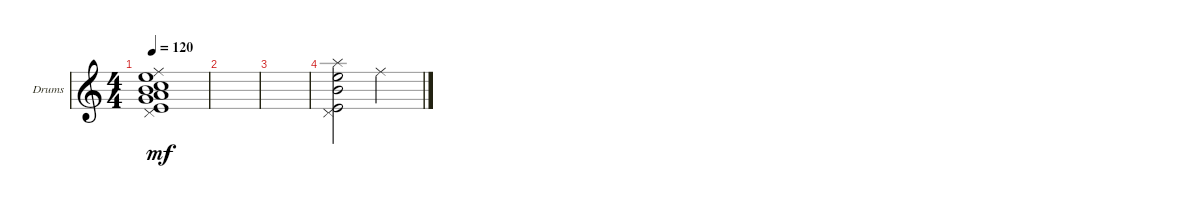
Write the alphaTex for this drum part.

\defaultSystemsLayout 4
\bracketExtendMode groupsimilarinstruments
\firstSystemTrackNameOrientation horizontal
\otherSystemsTrackNameOrientation horizontal
\track ("Drumkit" "Drums") {instrument percussion}
\staff {score}
\articulation defaults
\ts (4 4)
\tempo 120
\clef g2
\ks c
("Snare (hit) 2" "Mid Tom (hit)" "Low Tom (hit)" "Very Low Tom (hit)" "Kick (hit)" "Pedal Hi-Hat (hit)" "High Floor Tom (hit)" "Ride (middle)").1{dy mf} |
|
|
("Splash (hit)" "Pedal Hi-Hat (hit)" "Kick (hit)" "Mid Tom (hit)" "High Floor Tom (hit)").2 "Ride (middle)".2
